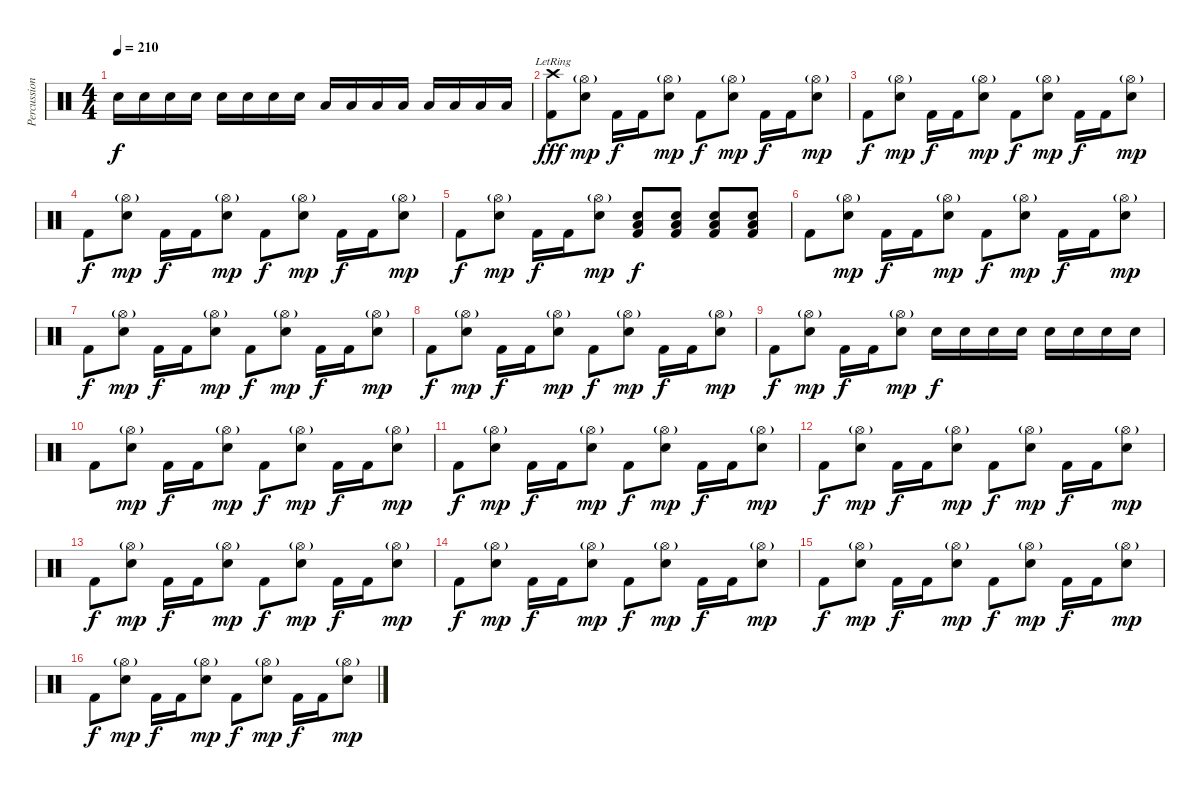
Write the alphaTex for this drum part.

\track ("Percussion" "Percussion") {instrument percussion}
\staff {score}
\articulation defaults
\ts (4 4)
\tempo 210
\clef neutral
\ks c "Snare (hit) 2".16{dy f} "Snare (hit) 2".16 "Snare (hit) 2".16 "Snare (hit) 2".16 "Snare (hit) 2".16 "Snare (hit) 2".16 "Snare (hit) 2".16 "Snare (hit) 2".16 "Low Tom (hit)".16 "Low Tom (hit)".16 "Low Tom (hit)".16 "Low Tom (hit)".16 "Low Floor Tom (hit)".16 "Low Floor Tom (hit)".16 "Low Floor Tom (hit)".16 "Low Floor Tom (hit)".16
|
("Crash high (hit)"{lr} "Kick (hit) 2").8{dy fff} ("Hi-Hat (open)"{g} "Snare (hit) 2").8{dy mp} "Kick (hit) 2".16{dy f} "Kick (hit) 2".16 ("Hi-Hat (open)"{g} "Snare (hit) 2").8{dy mp} "Kick (hit) 2".8{dy f} ("Hi-Hat (open)"{g} "Snare (hit) 2").8{dy mp} "Kick (hit) 2".16{dy f} "Kick (hit) 2".16 ("Hi-Hat (open)"{g} "Snare (hit) 2").8{dy mp} |
"Kick (hit) 2".8{dy f} ("Hi-Hat (open)"{g} "Snare (hit) 2").8{dy mp} "Kick (hit) 2".16{dy f} "Kick (hit) 2".16 ("Hi-Hat (open)"{g} "Snare (hit) 2").8{dy mp} "Kick (hit) 2".8{dy f} ("Hi-Hat (open)"{g} "Snare (hit) 2").8{dy mp} "Kick (hit) 2".16{dy f} "Kick (hit) 2".16 ("Hi-Hat (open)"{g} "Snare (hit) 2").8{dy mp} |
"Kick (hit) 2".8{dy f} ("Hi-Hat (open)"{g} "Snare (hit) 2").8{dy mp} "Kick (hit) 2".16{dy f} "Kick (hit) 2".16 ("Hi-Hat (open)"{g} "Snare (hit) 2").8{dy mp} "Kick (hit) 2".8{dy f} ("Hi-Hat (open)"{g} "Snare (hit) 2").8{dy mp} "Kick (hit) 2".16{dy f} "Kick (hit) 2".16 ("Hi-Hat (open)"{g} "Snare (hit) 2").8{dy mp} |
"Kick (hit) 2".8{dy f} ("Hi-Hat (open)"{g} "Snare (hit) 2").8{dy mp} "Kick (hit) 2".16{dy f} "Kick (hit) 2".16 ("Hi-Hat (open)"{g} "Snare (hit) 2").8{dy mp} ("Low Tom (hit)" "Snare (hit) 2" "Kick (hit) 2").8{dy f} ("Low Tom (hit)" "Snare (hit) 2" "Kick (hit) 2").8 ("Low Tom (hit)" "Snare (hit) 2" "Kick (hit) 2").8 ("Low Tom (hit)" "Snare (hit) 2" "Kick (hit) 2").8 |
"Kick (hit) 2".8 ("Hi-Hat (open)"{g} "Snare (hit) 2").8{dy mp} "Kick (hit) 2".16{dy f} "Kick (hit) 2".16 ("Hi-Hat (open)"{g} "Snare (hit) 2").8{dy mp} "Kick (hit) 2".8{dy f} ("Hi-Hat (open)"{g} "Snare (hit) 2").8{dy mp} "Kick (hit) 2".16{dy f} "Kick (hit) 2".16 ("Hi-Hat (open)"{g} "Snare (hit) 2").8{dy mp} |
"Kick (hit) 2".8{dy f} ("Hi-Hat (open)"{g} "Snare (hit) 2").8{dy mp} "Kick (hit) 2".16{dy f} "Kick (hit) 2".16 ("Hi-Hat (open)"{g} "Snare (hit) 2").8{dy mp} "Kick (hit) 2".8{dy f} ("Hi-Hat (open)"{g} "Snare (hit) 2").8{dy mp} "Kick (hit) 2".16{dy f} "Kick (hit) 2".16 ("Hi-Hat (open)"{g} "Snare (hit) 2").8{dy mp} |
"Kick (hit) 2".8{dy f} ("Hi-Hat (open)"{g} "Snare (hit) 2").8{dy mp} "Kick (hit) 2".16{dy f} "Kick (hit) 2".16 ("Hi-Hat (open)"{g} "Snare (hit) 2").8{dy mp} "Kick (hit) 2".8{dy f} ("Hi-Hat (open)"{g} "Snare (hit) 2").8{dy mp} "Kick (hit) 2".16{dy f} "Kick (hit) 2".16 ("Hi-Hat (open)"{g} "Snare (hit) 2").8{dy mp} |
"Kick (hit) 2".8{dy f} ("Hi-Hat (open)"{g} "Snare (hit) 2").8{dy mp} "Kick (hit) 2".16{dy f} "Kick (hit) 2".16 ("Hi-Hat (open)"{g} "Snare (hit) 2").8{dy mp} "Snare (hit) 2".16{dy f} "Snare (hit) 2".16 "Snare (hit) 2".16 "Snare (hit) 2".16 "Snare (hit) 2".16 "Snare (hit) 2".16 "Snare (hit) 2".16 "Snare (hit) 2".16 |
"Kick (hit) 2".8 ("Hi-Hat (open)"{g} "Snare (hit) 2").8{dy mp} "Kick (hit) 2".16{dy f} "Kick (hit) 2".16 ("Hi-Hat (open)"{g} "Snare (hit) 2").8{dy mp} "Kick (hit) 2".8{dy f} ("Hi-Hat (open)"{g} "Snare (hit) 2").8{dy mp} "Kick (hit) 2".16{dy f} "Kick (hit) 2".16 ("Hi-Hat (open)"{g} "Snare (hit) 2").8{dy mp} |
"Kick (hit) 2".8{dy f} ("Hi-Hat (open)"{g} "Snare (hit) 2").8{dy mp} "Kick (hit) 2".16{dy f} "Kick (hit) 2".16 ("Hi-Hat (open)"{g} "Snare (hit) 2").8{dy mp} "Kick (hit) 2".8{dy f} ("Hi-Hat (open)"{g} "Snare (hit) 2").8{dy mp} "Kick (hit) 2".16{dy f} "Kick (hit) 2".16 ("Hi-Hat (open)"{g} "Snare (hit) 2").8{dy mp} |
"Kick (hit) 2".8{dy f} ("Hi-Hat (open)"{g} "Snare (hit) 2").8{dy mp} "Kick (hit) 2".16{dy f} "Kick (hit) 2".16 ("Hi-Hat (open)"{g} "Snare (hit) 2").8{dy mp} "Kick (hit) 2".8{dy f} ("Hi-Hat (open)"{g} "Snare (hit) 2").8{dy mp} "Kick (hit) 2".16{dy f} "Kick (hit) 2".16 ("Hi-Hat (open)"{g} "Snare (hit) 2").8{dy mp} |
"Kick (hit) 2".8{dy f} ("Hi-Hat (open)"{g} "Snare (hit) 2").8{dy mp} "Kick (hit) 2".16{dy f} "Kick (hit) 2".16 ("Hi-Hat (open)"{g} "Snare (hit) 2").8{dy mp} "Kick (hit) 2".8{dy f} ("Hi-Hat (open)"{g} "Snare (hit) 2").8{dy mp} "Kick (hit) 2".16{dy f} "Kick (hit) 2".16 ("Hi-Hat (open)"{g} "Snare (hit) 2").8{dy mp} |
"Kick (hit) 2".8{dy f} ("Hi-Hat (open)"{g} "Snare (hit) 2").8{dy mp} "Kick (hit) 2".16{dy f} "Kick (hit) 2".16 ("Hi-Hat (open)"{g} "Snare (hit) 2").8{dy mp} "Kick (hit) 2".8{dy f} ("Hi-Hat (open)"{g} "Snare (hit) 2").8{dy mp} "Kick (hit) 2".16{dy f} "Kick (hit) 2".16 ("Hi-Hat (open)"{g} "Snare (hit) 2").8{dy mp} |
"Kick (hit) 2".8{dy f} ("Hi-Hat (open)"{g} "Snare (hit) 2").8{dy mp} "Kick (hit) 2".16{dy f} "Kick (hit) 2".16 ("Hi-Hat (open)"{g} "Snare (hit) 2").8{dy mp} "Kick (hit) 2".8{dy f} ("Hi-Hat (open)"{g} "Snare (hit) 2").8{dy mp} "Kick (hit) 2".16{dy f} "Kick (hit) 2".16 ("Hi-Hat (open)"{g} "Snare (hit) 2").8{dy mp} |
"Kick (hit) 2".8{dy f} ("Hi-Hat (open)"{g} "Snare (hit) 2").8{dy mp} "Kick (hit) 2".16{dy f} "Kick (hit) 2".16 ("Hi-Hat (open)"{g} "Snare (hit) 2").8{dy mp} "Kick (hit) 2".8{dy f} ("Hi-Hat (open)"{g} "Snare (hit) 2").8{dy mp} "Kick (hit) 2".16{dy f} "Kick (hit) 2".16 ("Hi-Hat (open)"{g} "Snare (hit) 2").8{dy mp}
